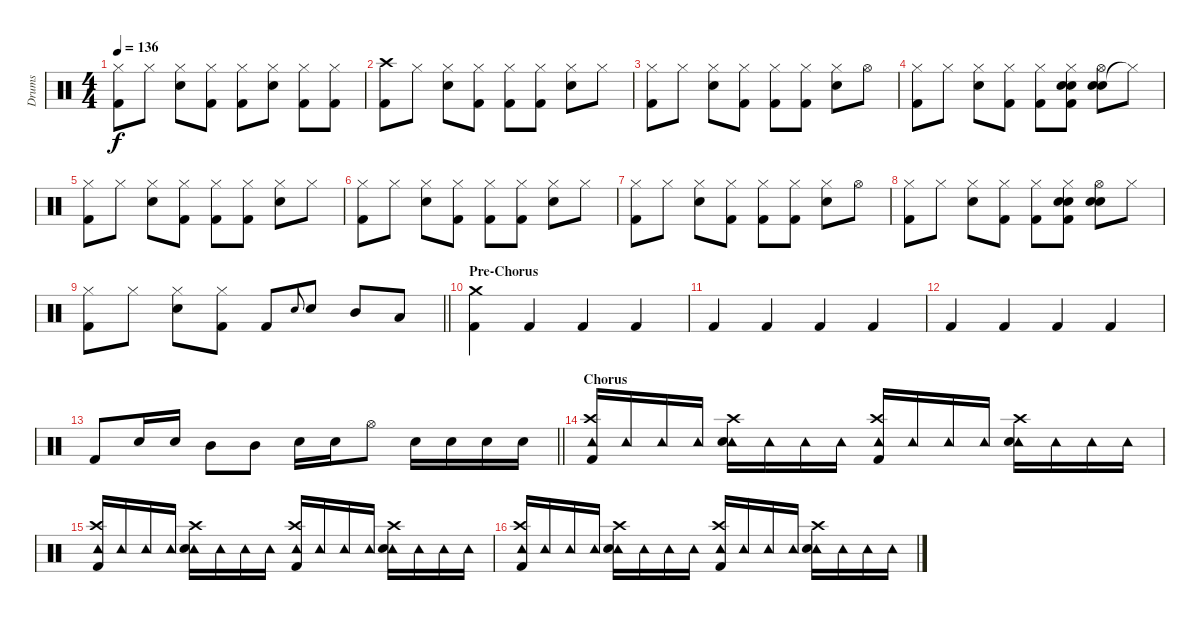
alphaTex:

\track ("Drums" "Drums") {instrument percussion}
\staff {score}
\articulation defaults
\ts (4 4)
\tempo 136
\clef neutral
\ks c
("Hi-Hat (closed)" "Kick (hit) 2").8{dy f} "Hi-Hat (closed)".8 ("Hi-Hat (closed)" "Electric Snare (hit)").8 ("Hi-Hat (closed)" "Kick (hit) 2").8 ("Hi-Hat (closed)" "Kick (hit) 2").8 ("Hi-Hat (closed)" "Electric Snare (hit)").8 ("Hi-Hat (closed)" "Kick (hit) 2").8 ("Hi-Hat (closed)" "Kick (hit) 2").8 |
("Crash high (hit)" "Kick (hit) 2").8 "Hi-Hat (closed)".8 ("Hi-Hat (closed)" "Electric Snare (hit)").8 ("Hi-Hat (closed)" "Kick (hit) 2").8 ("Hi-Hat (closed)" "Kick (hit) 2").8 ("Hi-Hat (closed)" "Kick (hit) 2").8 ("Hi-Hat (closed)" "Electric Snare (hit)").8 "Hi-Hat (closed)".8 |
("Hi-Hat (closed)" "Kick (hit) 2").8 "Hi-Hat (closed)".8 ("Hi-Hat (closed)" "Electric Snare (hit)").8 ("Hi-Hat (closed)" "Kick (hit) 2").8 ("Hi-Hat (closed)" "Kick (hit) 2").8 ("Hi-Hat (closed)" "Kick (hit) 2").8 ("Hi-Hat (closed)" "Electric Snare (hit)").8 "Hi-Hat (open)".8 |
("Hi-Hat (closed)" "Kick (hit) 2").8 "Hi-Hat (closed)".8 ("Hi-Hat (closed)" "Electric Snare (hit)").8 ("Hi-Hat (closed)" "Kick (hit) 2").8 ("Hi-Hat (closed)" "Kick (hit) 2").8 ("Hand Clap (hit)" "Hi-Hat (closed)" "Electric Snare (hit)" "Kick (hit) 2").8 ("Hand Clap (hit)" "Hi-Hat (open)" "Electric Snare (hit)").8 "Hi-Hat (closed)"{t}.8 |
("Hi-Hat (closed)" "Kick (hit) 2").8 "Hi-Hat (closed)".8 ("Hi-Hat (closed)" "Electric Snare (hit)").8 ("Hi-Hat (closed)" "Kick (hit) 2").8 ("Hi-Hat (closed)" "Kick (hit) 2").8 ("Hi-Hat (closed)" "Kick (hit) 2").8 ("Hi-Hat (closed)" "Electric Snare (hit)").8 "Hi-Hat (closed)".8 |
("Hi-Hat (closed)" "Kick (hit) 2").8 "Hi-Hat (closed)".8 ("Hi-Hat (closed)" "Electric Snare (hit)").8 ("Hi-Hat (closed)" "Kick (hit) 2").8 ("Hi-Hat (closed)" "Kick (hit) 2").8 ("Hi-Hat (closed)" "Kick (hit) 2").8 ("Hi-Hat (closed)" "Electric Snare (hit)").8 "Hi-Hat (closed)".8 |
("Hi-Hat (closed)" "Kick (hit) 2").8 "Hi-Hat (closed)".8 ("Hi-Hat (closed)" "Electric Snare (hit)").8 ("Hi-Hat (closed)" "Kick (hit) 2").8 ("Hi-Hat (closed)" "Kick (hit) 2").8 ("Hi-Hat (closed)" "Kick (hit) 2").8 ("Hi-Hat (closed)" "Electric Snare (hit)").8 "Hi-Hat (open)".8 |
("Hi-Hat (closed)" "Kick (hit) 2").8 "Hi-Hat (closed)".8 ("Hi-Hat (closed)" "Electric Snare (hit)").8 ("Hi-Hat (closed)" "Kick (hit) 2").8 ("Hi-Hat (closed)" "Kick (hit) 2").8 ("Hand Clap (hit)" "Hi-Hat (closed)" "Electric Snare (hit)" "Kick (hit) 2").8 ("Hand Clap (hit)" "Hi-Hat (open)" "Electric Snare (hit)").8 "Hi-Hat (closed)".8 |
\barLineRight lightlight
("Hi-Hat (closed)" "Kick (hit) 2").8 "Hi-Hat (closed)".8 ("Hi-Hat (closed)" "Electric Snare (hit)").8 ("Hi-Hat (closed)" "Kick (hit) 2").8 "Kick (hit) 2".8 "Electric Snare (hit)".8{gr onbeat} "Electric Snare (hit)".8 "Mid Tom (hit)".8 "Low Tom (hit)".8 |
\section ("" "Pre-Chorus")
("Crash medium (hit)" "Kick (hit) 2").4 "Kick (hit) 2".4 "Kick (hit) 2".4 "Kick (hit) 2".4 |
"Kick (hit) 2".4 "Kick (hit) 2".4 "Kick (hit) 2".4 "Kick (hit) 2".4 |
"Kick (hit) 2".4 "Kick (hit) 2".4 "Kick (hit) 2".4 "Kick (hit) 2".4 |
\barLineRight lightlight "Kick (hit) 2".8 "Electric Snare (hit)".16 "Electric Snare (hit)".16 "Mid Tom (hit)".8 "Mid Tom (hit)".8 "Electric Snare (hit)".16 "Electric Snare (hit)".16 "Hi-Hat (open)".8 "Electric Snare (hit)".16 "Electric Snare (hit)".16 "Electric Snare (hit)".16 "Electric Snare (hit)".16
|
\section ("" "Chorus")
("Crash high (hit)" "Tambourine (hit)" "Kick (hit) 2").16 "Tambourine (hit)".16 "Tambourine (hit)".16 "Tambourine (hit)".16 ("Crash high (hit)" "Tambourine (hit)" "Electric Snare (hit)").16 "Tambourine (hit)".16 "Tambourine (hit)".16 "Tambourine (hit)".16 ("Crash high (hit)" "Tambourine (hit)" "Kick (hit) 2").16 "Tambourine (hit)".16 "Tambourine (hit)".16 "Tambourine (hit)".16 ("Crash high (hit)" "Tambourine (hit)" "Electric Snare (hit)").16 "Tambourine (hit)".16 "Tambourine (hit)".16 "Tambourine (hit)".16 |
("Crash high (hit)" "Tambourine (hit)" "Kick (hit) 2").16 "Tambourine (hit)".16 "Tambourine (hit)".16 "Tambourine (hit)".16 ("Crash high (hit)" "Tambourine (hit)" "Electric Snare (hit)").16 "Tambourine (hit)".16 "Tambourine (hit)".16 "Tambourine (hit)".16 ("Crash high (hit)" "Tambourine (hit)" "Kick (hit) 2").16 "Tambourine (hit)".16 "Tambourine (hit)".16 "Tambourine (hit)".16 ("Crash high (hit)" "Tambourine (hit)" "Electric Snare (hit)").16 "Tambourine (hit)".16 "Tambourine (hit)".16 "Tambourine (hit)".16 |
("Crash high (hit)" "Tambourine (hit)" "Kick (hit) 2").16 "Tambourine (hit)".16 "Tambourine (hit)".16 "Tambourine (hit)".16 ("Crash high (hit)" "Tambourine (hit)" "Electric Snare (hit)").16 "Tambourine (hit)".16 "Tambourine (hit)".16 "Tambourine (hit)".16 ("Crash high (hit)" "Tambourine (hit)" "Kick (hit) 2").16 "Tambourine (hit)".16 "Tambourine (hit)".16 "Tambourine (hit)".16 ("Crash high (hit)" "Tambourine (hit)" "Electric Snare (hit)").16 "Tambourine (hit)".16 "Tambourine (hit)".16 "Tambourine (hit)".16
